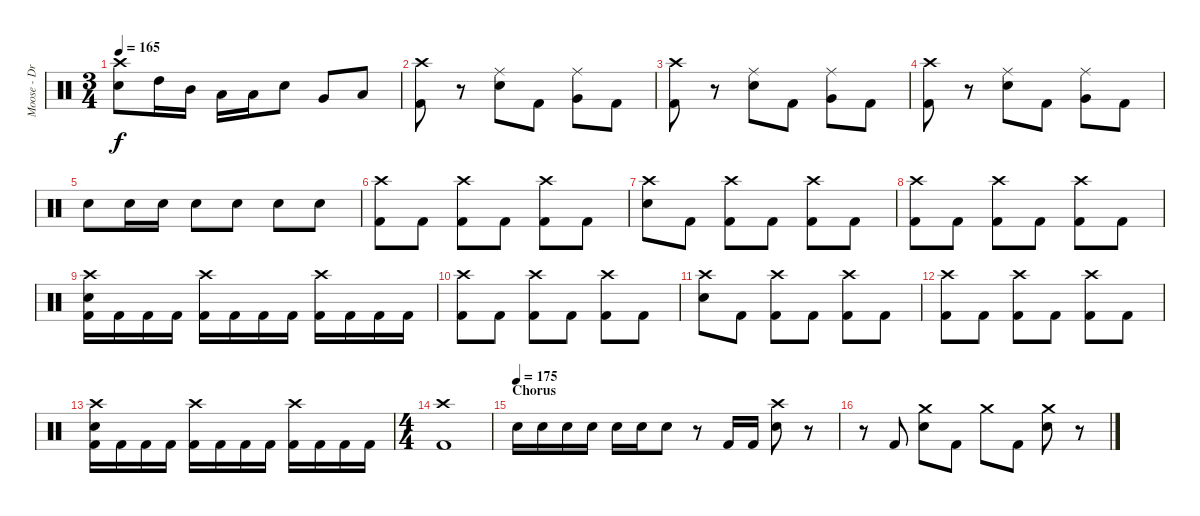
\track ("Moose - Drums" "Moose - Dr") {instrument percussion}
\staff {score}
\articulation defaults
\ts (3 4)
\tempo 165
\clef neutral
\ks c
("Crash high (hit)" "Electric Snare (hit)").8{dy f} "High Tom (hit)".16 "Mid Tom (hit)".16 "Low Tom (hit)".16 "Low Tom (hit)".16 "Electric Snare (hit)".8 "Very Low Tom (hit)".8 "Low Floor Tom (hit)".8 |
("Crash high (hit)" "Kick (hit) 2").8 r.8 ("Ride (middle)" "Electric Snare (hit)").8 "Kick (hit) 2".8 ("Ride (middle)" "Very Low Tom (hit)").8 "Kick (hit) 2".8 |
("Crash high (hit)" "Kick (hit) 2").8 r.8 ("Ride (middle)" "Electric Snare (hit)").8 "Kick (hit) 2".8 ("Ride (middle)" "Very Low Tom (hit)").8 "Kick (hit) 2".8 |
("Crash high (hit)" "Kick (hit) 2").8 r.8 ("Ride (middle)" "Electric Snare (hit)").8 "Kick (hit) 2".8 ("Ride (middle)" "Very Low Tom (hit)").8 "Kick (hit) 2".8 |
"Electric Snare (hit)".8 "Electric Snare (hit)".16 "Electric Snare (hit)".16 "Electric Snare (hit)".8 "Electric Snare (hit)".8 "Electric Snare (hit)".8 "Electric Snare (hit)".8 |
("Crash high (hit)" "Kick (hit) 2").8 "Kick (hit) 2".8 ("Crash high (hit)" "Kick (hit) 2").8 "Kick (hit) 2".8 ("Crash high (hit)" "Kick (hit) 2").8 "Kick (hit) 2".8 |
("Crash high (hit)" "Electric Snare (hit)").8 "Kick (hit) 2".8 ("Crash high (hit)" "Kick (hit) 2").8 "Kick (hit) 2".8 ("Crash high (hit)" "Kick (hit) 2").8 "Kick (hit) 2".8 |
("Crash high (hit)" "Kick (hit) 2").8 "Kick (hit) 2".8 ("Crash high (hit)" "Kick (hit) 2").8 "Kick (hit) 2".8 ("Crash high (hit)" "Kick (hit) 2").8 "Kick (hit) 2".8 |
("Crash high (hit)" "Electric Snare (hit)" "Kick (hit) 2").16 "Kick (hit) 2".16 "Kick (hit) 2".16 "Kick (hit) 2".16 ("Crash high (hit)" "Kick (hit) 2").16 "Kick (hit) 2".16 "Kick (hit) 2".16 "Kick (hit) 2".16 ("Crash high (hit)" "Kick (hit) 2").16 "Kick (hit) 2".16 "Kick (hit) 2".16 "Kick (hit) 2".16 |
("Crash high (hit)" "Kick (hit) 2").8 "Kick (hit) 2".8 ("Crash high (hit)" "Kick (hit) 2").8 "Kick (hit) 2".8 ("Crash high (hit)" "Kick (hit) 2").8 "Kick (hit) 2".8 |
("Crash high (hit)" "Electric Snare (hit)").8 "Kick (hit) 2".8 ("Crash high (hit)" "Kick (hit) 2").8 "Kick (hit) 2".8 ("Crash high (hit)" "Kick (hit) 2").8 "Kick (hit) 2".8 |
("Crash high (hit)" "Kick (hit) 2").8 "Kick (hit) 2".8 ("Crash high (hit)" "Kick (hit) 2").8 "Kick (hit) 2".8 ("Crash high (hit)" "Kick (hit) 2").8 "Kick (hit) 2".8 |
("Crash high (hit)" "Electric Snare (hit)" "Kick (hit) 2").16 "Kick (hit) 2".16 "Kick (hit) 2".16 "Kick (hit) 2".16 ("Crash high (hit)" "Kick (hit) 2").16 "Kick (hit) 2".16 "Kick (hit) 2".16 "Kick (hit) 2".16 ("Crash high (hit)" "Kick (hit) 2").16 "Kick (hit) 2".16 "Kick (hit) 2".16 "Kick (hit) 2".16 |
\ts (4 4)
("Crash high (hit)" "Kick (hit) 2").1 |
\section ("" "Chorus")
\tempo (175)
"Electric Snare (hit)".16 "Electric Snare (hit)".16 "Electric Snare (hit)".16 "Electric Snare (hit)".16 "Electric Snare (hit)".16 "Electric Snare (hit)".16 "Electric Snare (hit)".8 r.8 "Kick (hit) 2".16 "Kick (hit) 2".16 ("Crash high (hit)" "Electric Snare (hit)").8 r.8 |
r.8 "Kick (hit) 2".8 ("Crash medium (hit)" "Electric Snare (hit)").8 "Kick (hit) 2".8 "Crash medium (hit)".8 "Kick (hit) 2".8 ("Crash medium (hit)" "Electric Snare (hit)").8 r.8
